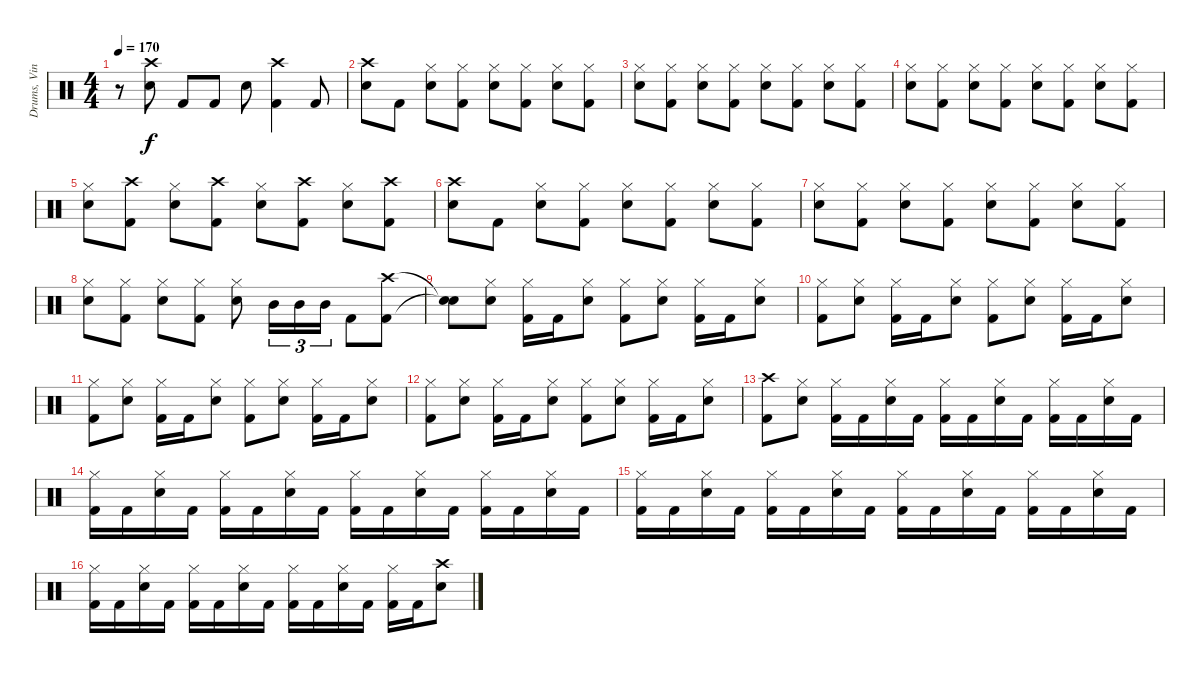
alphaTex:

\track ("Drums, Vinnie" "Drums, Vin") {instrument percussion}
\staff {score}
\articulation defaults
\ts (4 4)
\tempo 170
\clef neutral
\ks c
r.8{dy f} ("Crash high (hit)" "Electric Snare (hit)").8 "Kick (hit) 2".8 "Kick (hit) 2".8 "Electric Snare (hit)".8 ("Crash high (hit)" "Kick (hit) 2").4 "Kick (hit) 2".8 |
("Crash high (hit)" "Electric Snare (hit)").8 "Kick (hit) 2".8 ("Hi-Hat (closed)" "Electric Snare (hit)").8 ("Hi-Hat (closed)" "Kick (hit) 2").8 ("Hi-Hat (closed)" "Electric Snare (hit)").8 ("Hi-Hat (closed)" "Kick (hit) 2").8 ("Hi-Hat (closed)" "Electric Snare (hit)").8 ("Hi-Hat (closed)" "Kick (hit) 2").8 |
("Hi-Hat (closed)" "Electric Snare (hit)").8 ("Hi-Hat (closed)" "Kick (hit) 2").8 ("Hi-Hat (closed)" "Electric Snare (hit)").8 ("Hi-Hat (closed)" "Kick (hit) 2").8 ("Hi-Hat (closed)" "Electric Snare (hit)").8 ("Hi-Hat (closed)" "Kick (hit) 2").8 ("Hi-Hat (closed)" "Electric Snare (hit)").8 ("Hi-Hat (closed)" "Kick (hit) 2").8 |
("Hi-Hat (closed)" "Electric Snare (hit)").8 ("Hi-Hat (closed)" "Kick (hit) 2").8 ("Hi-Hat (closed)" "Electric Snare (hit)").8 ("Hi-Hat (closed)" "Kick (hit) 2").8 ("Hi-Hat (closed)" "Electric Snare (hit)").8 ("Hi-Hat (closed)" "Kick (hit) 2").8 ("Hi-Hat (closed)" "Electric Snare (hit)").8 ("Hi-Hat (closed)" "Kick (hit) 2").8 |
("Hi-Hat (closed)" "Electric Snare (hit)").8 ("Crash high (hit)" "Kick (hit) 2").8 ("Hi-Hat (closed)" "Electric Snare (hit)").8 ("Crash high (hit)" "Kick (hit) 2").8 ("Hi-Hat (closed)" "Electric Snare (hit)").8 ("Crash high (hit)" "Kick (hit) 2").8 ("Hi-Hat (closed)" "Electric Snare (hit)").8 ("Crash high (hit)" "Kick (hit) 2").8 |
("Crash high (hit)" "Electric Snare (hit)").8 "Kick (hit) 2".8 ("Hi-Hat (closed)" "Electric Snare (hit)").8 ("Hi-Hat (closed)" "Kick (hit) 2").8 ("Hi-Hat (closed)" "Electric Snare (hit)").8 ("Hi-Hat (closed)" "Kick (hit) 2").8 ("Hi-Hat (closed)" "Electric Snare (hit)").8 ("Hi-Hat (closed)" "Kick (hit) 2").8 |
("Hi-Hat (closed)" "Electric Snare (hit)").8 ("Hi-Hat (closed)" "Kick (hit) 2").8 ("Hi-Hat (closed)" "Electric Snare (hit)").8 ("Hi-Hat (closed)" "Kick (hit) 2").8 ("Hi-Hat (closed)" "Electric Snare (hit)").8 ("Hi-Hat (closed)" "Kick (hit) 2").8 ("Hi-Hat (closed)" "Electric Snare (hit)").8 ("Hi-Hat (closed)" "Kick (hit) 2").8 |
("Hi-Hat (closed)" "Electric Snare (hit)").8 ("Hi-Hat (closed)" "Kick (hit) 2").8 ("Hi-Hat (closed)" "Electric Snare (hit)").8 ("Hi-Hat (closed)" "Kick (hit) 2").8 ("Hi-Hat (closed)" "Electric Snare (hit)").8 "Mid Tom (hit)".16{tu (3 2)} "Mid Tom (hit)".16{tu (3 2)} "Mid Tom (hit)".16{tu (3 2)} "Kick (hit) 2".8 ("Crash high (hit)" "Kick (hit) 2").8 |
("Snare (hit)"{t} "Snare (hit)"{t}).8 ("Hi-Hat (closed)" "Electric Snare (hit)").8 ("Hi-Hat (closed)" "Kick (hit) 2").16 "Kick (hit) 2".16 ("Hi-Hat (closed)" "Electric Snare (hit)").8 ("Hi-Hat (closed)" "Kick (hit) 2").8 ("Hi-Hat (closed)" "Electric Snare (hit)").8 ("Hi-Hat (closed)" "Kick (hit) 2").16 "Kick (hit) 2".16 ("Hi-Hat (closed)" "Electric Snare (hit)").8 |
("Hi-Hat (closed)" "Kick (hit) 2").8 ("Hi-Hat (closed)" "Electric Snare (hit)").8 ("Hi-Hat (closed)" "Kick (hit) 2").16 "Kick (hit) 2".16 ("Hi-Hat (closed)" "Electric Snare (hit)").8 ("Hi-Hat (closed)" "Kick (hit) 2").8 ("Hi-Hat (closed)" "Electric Snare (hit)").8 ("Hi-Hat (closed)" "Kick (hit) 2").16 "Kick (hit) 2".16 ("Hi-Hat (closed)" "Electric Snare (hit)").8 |
("Hi-Hat (closed)" "Kick (hit) 2").8 ("Hi-Hat (closed)" "Electric Snare (hit)").8 ("Hi-Hat (closed)" "Kick (hit) 2").16 "Kick (hit) 2".16 ("Hi-Hat (closed)" "Electric Snare (hit)").8 ("Hi-Hat (closed)" "Kick (hit) 2").8 ("Hi-Hat (closed)" "Electric Snare (hit)").8 ("Hi-Hat (closed)" "Kick (hit) 2").16 "Kick (hit) 2".16 ("Hi-Hat (closed)" "Electric Snare (hit)").8 |
("Hi-Hat (closed)" "Kick (hit) 2").8 ("Hi-Hat (closed)" "Electric Snare (hit)").8 ("Hi-Hat (closed)" "Kick (hit) 2").16 "Kick (hit) 2".16 ("Hi-Hat (closed)" "Electric Snare (hit)").8 ("Hi-Hat (closed)" "Kick (hit) 2").8 ("Hi-Hat (closed)" "Electric Snare (hit)").8 ("Hi-Hat (closed)" "Kick (hit) 2").16 "Kick (hit) 2".16 ("Hi-Hat (closed)" "Electric Snare (hit)").8 |
("Crash high (hit)" "Kick (hit) 2").8 ("Hi-Hat (closed)" "Electric Snare (hit)").8 ("Hi-Hat (closed)" "Kick (hit) 2").16 "Kick (hit) 2".16 ("Hi-Hat (closed)" "Electric Snare (hit)").16 "Kick (hit) 2".16 ("Hi-Hat (closed)" "Kick (hit) 2").16 "Kick (hit) 2".16 ("Hi-Hat (closed)" "Electric Snare (hit)").16 "Kick (hit) 2".16 ("Hi-Hat (closed)" "Kick (hit) 2").16 "Kick (hit) 2".16 ("Hi-Hat (closed)" "Electric Snare (hit)").16 "Kick (hit) 2".16 |
("Hi-Hat (closed)" "Kick (hit) 2").16 "Kick (hit) 2".16 ("Hi-Hat (closed)" "Electric Snare (hit)").16 "Kick (hit) 2".16 ("Hi-Hat (closed)" "Kick (hit) 2").16 "Kick (hit) 2".16 ("Hi-Hat (closed)" "Electric Snare (hit)").16 "Kick (hit) 2".16 ("Hi-Hat (closed)" "Kick (hit) 2").16 "Kick (hit) 2".16 ("Hi-Hat (closed)" "Electric Snare (hit)").16 "Kick (hit) 2".16 ("Hi-Hat (closed)" "Kick (hit) 2").16 "Kick (hit) 2".16 ("Hi-Hat (closed)" "Electric Snare (hit)").16 "Kick (hit) 2".16 |
("Hi-Hat (closed)" "Kick (hit) 2").16 "Kick (hit) 2".16 ("Hi-Hat (closed)" "Electric Snare (hit)").16 "Kick (hit) 2".16 ("Hi-Hat (closed)" "Kick (hit) 2").16 "Kick (hit) 2".16 ("Hi-Hat (closed)" "Electric Snare (hit)").16 "Kick (hit) 2".16 ("Hi-Hat (closed)" "Kick (hit) 2").16 "Kick (hit) 2".16 ("Hi-Hat (closed)" "Electric Snare (hit)").16 "Kick (hit) 2".16 ("Hi-Hat (closed)" "Kick (hit) 2").16 "Kick (hit) 2".16 ("Hi-Hat (closed)" "Electric Snare (hit)").16 "Kick (hit) 2".16 |
("Hi-Hat (closed)" "Kick (hit) 2").16 "Kick (hit) 2".16 ("Hi-Hat (closed)" "Electric Snare (hit)").16 "Kick (hit) 2".16 ("Hi-Hat (closed)" "Kick (hit) 2").16 "Kick (hit) 2".16 ("Hi-Hat (closed)" "Electric Snare (hit)").16 "Kick (hit) 2".16 ("Hi-Hat (closed)" "Kick (hit) 2").16 "Kick (hit) 2".16 ("Hi-Hat (closed)" "Electric Snare (hit)").16 "Kick (hit) 2".16 ("Hi-Hat (closed)" "Kick (hit) 2").16 "Kick (hit) 2".16 ("Crash high (hit)" "Electric Snare (hit)").8
